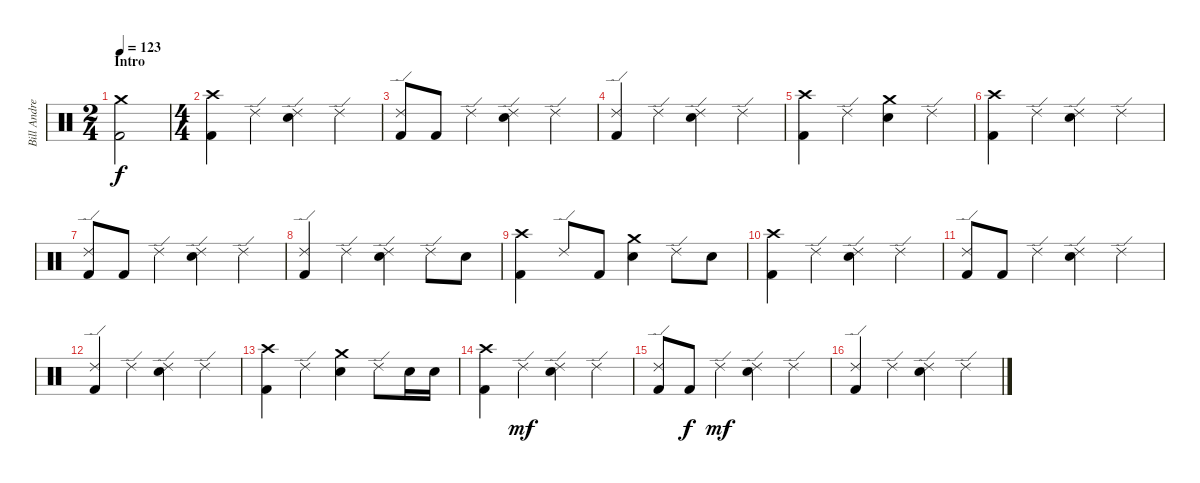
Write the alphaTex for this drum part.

\track ("Bill Andrews" "Bill Andre") {instrument percussion}
\staff {score}
\articulation defaults
\ts (2 4)
\section ("" "Intro")
\tempo 123
\clef neutral
\ks c
("Kick (hit) 2" "Crash medium (hit)").2{dy f} |
\ts (4 4)
("Kick (hit) 2" "Crash high (hit)").4 "Ride (edge) 2".4 ("Ride (edge) 2" "Snare (hit) 2").4 "Ride (edge) 2".4 |
("Kick (hit) 2" "Ride (edge) 2").8 "Kick (hit) 2".8 "Ride (edge) 2".4 ("Ride (edge) 2" "Snare (hit) 2").4 "Ride (edge) 2".4 |
("Kick (hit) 2" "Ride (edge) 2").4 "Ride (edge) 2".4 ("Ride (edge) 2" "Snare (hit) 2").4 "Ride (edge) 2".4 |
("Kick (hit) 2" "Crash high (hit)").4 "Ride (edge) 2".4 ("Crash medium (hit)" "Snare (hit) 2").4 "Ride (edge) 2".4 |
("Kick (hit) 2" "Crash high (hit)").4 "Ride (edge) 2".4 ("Ride (edge) 2" "Snare (hit) 2").4 "Ride (edge) 2".4 |
("Kick (hit) 2" "Ride (edge) 2").8 "Kick (hit) 2".8 "Ride (edge) 2".4 ("Ride (edge) 2" "Snare (hit) 2").4 "Ride (edge) 2".4 |
("Kick (hit) 2" "Ride (edge) 2").4 "Ride (edge) 2".4 ("Ride (edge) 2" "Snare (hit) 2").4 "Ride (edge) 2".8 "Snare (hit) 2".8 |
("Kick (hit) 2" "Crash high (hit)").4 "Ride (edge) 2".8 "Kick (hit) 2".8 ("Crash medium (hit)" "Snare (hit) 2").4 "Ride (edge) 2".8 "Snare (hit) 2".8 |
("Kick (hit) 2" "Crash high (hit)").4 "Ride (edge) 2".4 ("Ride (edge) 2" "Snare (hit) 2").4 "Ride (edge) 2".4 |
("Kick (hit) 2" "Ride (edge) 2").8 "Kick (hit) 2".8 "Ride (edge) 2".4 ("Ride (edge) 2" "Snare (hit) 2").4 "Ride (edge) 2".4 |
("Kick (hit) 2" "Ride (edge) 2").4 "Ride (edge) 2".4 ("Ride (edge) 2" "Snare (hit) 2").4 "Ride (edge) 2".4 |
("Kick (hit) 2" "Crash high (hit)").4 "Ride (edge) 2".4 ("Crash medium (hit)" "Snare (hit) 2").4 "Ride (edge) 2".8 "Snare (hit) 2".16 "Snare (hit) 2".16 |
("Kick (hit) 2" "Crash high (hit)").4 "Ride (edge) 2".4{dy mf} ("Ride (edge) 2" "Snare (hit) 2").4 "Ride (edge) 2".4 |
("Kick (hit) 2" "Ride (edge) 2").8 "Kick (hit) 2".8{dy f} "Ride (edge) 2".4{dy mf} ("Ride (edge) 2" "Snare (hit) 2").4 "Ride (edge) 2".4 |
("Kick (hit) 2" "Ride (edge) 2").4 "Ride (edge) 2".4 ("Ride (edge) 2" "Snare (hit) 2").4 "Ride (edge) 2".4
